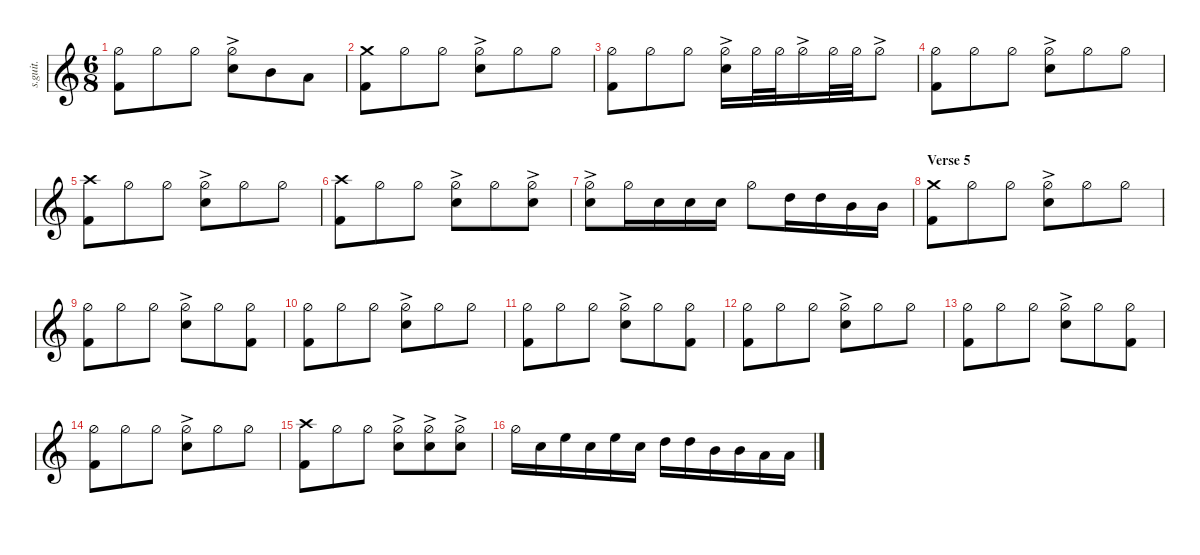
\defaultSystemsLayout 4
\hideDynamics
\bracketExtendMode nobrackets
\track ("Lars Ulrich - Drums" "s.guit.") {instrument percussion}
\staff {score}
\articulation defaults
\ts (6 8)
\tempo (71 hide)
\clef g2
\ks c
("Hi-Hat (half)" "Kick (hit) 2").8{lyrics (0 "") lyrics (1 "") lyrics (2 "") lyrics (3 "") lyrics (4 "") dy ff} "Hi-Hat (half)".8{lyrics (0 "") lyrics (1 "") lyrics (2 "") lyrics (3 "") lyrics (4 "")} "Hi-Hat (half)".8{lyrics (0 "") lyrics (1 "") lyrics (2 "") lyrics (3 "") lyrics (4 "")} ("Hi-Hat (half)"{ac} "Snare (hit) 2"{ac}).8{lyrics (0 "") lyrics (1 "") lyrics (2 "") lyrics (3 "") lyrics (4 "")} "Mid Tom (hit)".8{lyrics (0 "") lyrics (1 "") lyrics (2 "") lyrics (3 "") lyrics (4 "")} "Low Floor Tom (hit)".8{lyrics (0 "") lyrics (1 "") lyrics (2 "") lyrics (3 "") lyrics (4 "")} |
("Crash medium (hit)" "Kick (hit) 2").8{lyrics (0 "") lyrics (1 "") lyrics (2 "") lyrics (3 "") lyrics (4 "")} "Hi-Hat (half)".8{lyrics (0 "") lyrics (1 "") lyrics (2 "") lyrics (3 "") lyrics (4 "")} "Hi-Hat (half)".8{lyrics (0 "") lyrics (1 "") lyrics (2 "") lyrics (3 "") lyrics (4 "")} ("Hi-Hat (half)"{ac} "Snare (hit) 2"{ac}).8{lyrics (0 "") lyrics (1 "") lyrics (2 "") lyrics (3 "") lyrics (4 "")} "Hi-Hat (half)".8{lyrics (0 "") lyrics (1 "") lyrics (2 "") lyrics (3 "") lyrics (4 "")} "Hi-Hat (half)".8{lyrics (0 "") lyrics (1 "") lyrics (2 "") lyrics (3 "") lyrics (4 "")} |
("Hi-Hat (half)" "Kick (hit) 2").8{lyrics (0 "") lyrics (1 "") lyrics (2 "") lyrics (3 "") lyrics (4 "")} "Hi-Hat (half)".8{lyrics (0 "") lyrics (1 "") lyrics (2 "") lyrics (3 "") lyrics (4 "")} "Hi-Hat (half)".8{lyrics (0 "") lyrics (1 "") lyrics (2 "") lyrics (3 "") lyrics (4 "")} ("Hi-Hat (half)"{ac} "Snare (hit) 2"{ac}).16{lyrics (0 "") lyrics (1 "") lyrics (2 "") lyrics (3 "") lyrics (4 "")} "Hi-Hat (half)".32{lyrics (0 "") lyrics (1 "") lyrics (2 "") lyrics (3 "") lyrics (4 "")} "Hi-Hat (half)".32{lyrics (0 "") lyrics (1 "") lyrics (2 "") lyrics (3 "") lyrics (4 "")} "Hi-Hat (half)"{ac}.16{lyrics (0 "") lyrics (1 "") lyrics (2 "") lyrics (3 "") lyrics (4 "")} "Hi-Hat (half)".32{lyrics (0 "") lyrics (1 "") lyrics (2 "") lyrics (3 "") lyrics (4 "")} "Hi-Hat (half)".32{lyrics (0 "") lyrics (1 "") lyrics (2 "") lyrics (3 "") lyrics (4 "")} "Hi-Hat (half)"{ac}.8{lyrics (0 "") lyrics (1 "") lyrics (2 "") lyrics (3 "") lyrics (4 "")} |
("Kick (hit) 2" "Hi-Hat (half)").8{lyrics (0 "") lyrics (1 "") lyrics (2 "") lyrics (3 "") lyrics (4 "")} "Hi-Hat (half)".8{lyrics (0 "") lyrics (1 "") lyrics (2 "") lyrics (3 "") lyrics (4 "")} "Hi-Hat (half)".8{lyrics (0 "") lyrics (1 "") lyrics (2 "") lyrics (3 "") lyrics (4 "")} ("Hi-Hat (half)"{ac} "Snare (hit) 2"{ac}).8{lyrics (0 "") lyrics (1 "") lyrics (2 "") lyrics (3 "") lyrics (4 "")} "Hi-Hat (half)".8{lyrics (0 "") lyrics (1 "") lyrics (2 "") lyrics (3 "") lyrics (4 "")} "Hi-Hat (half)".8{lyrics (0 "") lyrics (1 "") lyrics (2 "") lyrics (3 "") lyrics (4 "")} |
("Kick (hit) 2" "Crash high (hit)").8{lyrics (0 "") lyrics (1 "") lyrics (2 "") lyrics (3 "") lyrics (4 "")} "Hi-Hat (half)".8{lyrics (0 "") lyrics (1 "") lyrics (2 "") lyrics (3 "") lyrics (4 "")} "Hi-Hat (half)".8{lyrics (0 "") lyrics (1 "") lyrics (2 "") lyrics (3 "") lyrics (4 "")} ("Hi-Hat (half)"{ac} "Snare (hit) 2"{ac}).8{lyrics (0 "") lyrics (1 "") lyrics (2 "") lyrics (3 "") lyrics (4 "")} "Hi-Hat (half)".8{lyrics (0 "") lyrics (1 "") lyrics (2 "") lyrics (3 "") lyrics (4 "")} "Hi-Hat (half)".8{lyrics (0 "") lyrics (1 "") lyrics (2 "") lyrics (3 "") lyrics (4 "")} |
("Crash high (hit)" "Kick (hit) 2").8{lyrics (0 "") lyrics (1 "") lyrics (2 "") lyrics (3 "") lyrics (4 "")} "Hi-Hat (half)".8{lyrics (0 "") lyrics (1 "") lyrics (2 "") lyrics (3 "") lyrics (4 "")} "Hi-Hat (half)".8{lyrics (0 "") lyrics (1 "") lyrics (2 "") lyrics (3 "") lyrics (4 "")} ("Hi-Hat (half)"{ac} "Snare (hit) 2"{ac}).8{lyrics (0 "") lyrics (1 "") lyrics (2 "") lyrics (3 "") lyrics (4 "")} "Hi-Hat (half)".8{lyrics (0 "") lyrics (1 "") lyrics (2 "") lyrics (3 "") lyrics (4 "")} ("Snare (hit) 2"{ac} "Hi-Hat (half)"{ac}).8{lyrics (0 "") lyrics (1 "") lyrics (2 "") lyrics (3 "") lyrics (4 "")} |
("Hi-Hat (half)"{ac} "Snare (hit) 2"{ac}).8{lyrics (0 "") lyrics (1 "") lyrics (2 "") lyrics (3 "") lyrics (4 "")} "Hi-Hat (half)".16{lyrics (0 "") lyrics (1 "") lyrics (2 "") lyrics (3 "") lyrics (4 "")} "Snare (hit) 2".16{lyrics (0 "") lyrics (1 "") lyrics (2 "") lyrics (3 "") lyrics (4 "")} "Snare (hit) 2".16{lyrics (0 "") lyrics (1 "") lyrics (2 "") lyrics (3 "") lyrics (4 "")} "Snare (hit) 2".16{lyrics (0 "") lyrics (1 "") lyrics (2 "") lyrics (3 "") lyrics (4 "")} "Hi-Hat (half)".8{lyrics (0 "") lyrics (1 "") lyrics (2 "") lyrics (3 "") lyrics (4 "")} "High Tom (hit)".16{lyrics (0 "") lyrics (1 "") lyrics (2 "") lyrics (3 "") lyrics (4 "")} "High Tom (hit)".16{lyrics (0 "") lyrics (1 "") lyrics (2 "") lyrics (3 "") lyrics (4 "")} "Mid Tom (hit)".16{lyrics (0 "") lyrics (1 "") lyrics (2 "") lyrics (3 "") lyrics (4 "")} "Mid Tom (hit)".16{lyrics (0 "") lyrics (1 "") lyrics (2 "") lyrics (3 "") lyrics (4 "")} |
\section ("" "Verse 5")
("Crash medium (hit)" "Kick (hit) 2").8{lyrics (0 "") lyrics (1 "") lyrics (2 "") lyrics (3 "") lyrics (4 "")} "Hi-Hat (half)".8{lyrics (0 "") lyrics (1 "") lyrics (2 "") lyrics (3 "") lyrics (4 "")} "Hi-Hat (half)".8{lyrics (0 "") lyrics (1 "") lyrics (2 "") lyrics (3 "") lyrics (4 "")} ("Hi-Hat (half)"{ac} "Snare (hit) 2"{ac}).8{lyrics (0 "") lyrics (1 "") lyrics (2 "") lyrics (3 "") lyrics (4 "")} "Hi-Hat (half)".8{lyrics (0 "") lyrics (1 "") lyrics (2 "") lyrics (3 "") lyrics (4 "")} "Hi-Hat (half)".8{lyrics (0 "") lyrics (1 "") lyrics (2 "") lyrics (3 "") lyrics (4 "")} |
("Hi-Hat (half)" "Kick (hit) 2").8{lyrics (0 "") lyrics (1 "") lyrics (2 "") lyrics (3 "") lyrics (4 "")} "Hi-Hat (half)".8{lyrics (0 "") lyrics (1 "") lyrics (2 "") lyrics (3 "") lyrics (4 "")} "Hi-Hat (half)".8{lyrics (0 "") lyrics (1 "") lyrics (2 "") lyrics (3 "") lyrics (4 "")} ("Hi-Hat (half)"{ac} "Snare (hit) 2"{ac}).8{lyrics (0 "") lyrics (1 "") lyrics (2 "") lyrics (3 "") lyrics (4 "")} "Hi-Hat (half)".8{lyrics (0 "") lyrics (1 "") lyrics (2 "") lyrics (3 "") lyrics (4 "")} ("Hi-Hat (half)" "Kick (hit) 2").8{lyrics (0 "") lyrics (1 "") lyrics (2 "") lyrics (3 "") lyrics (4 "")} |
("Hi-Hat (half)" "Kick (hit) 2").8{lyrics (0 "") lyrics (1 "") lyrics (2 "") lyrics (3 "") lyrics (4 "")} "Hi-Hat (half)".8{lyrics (0 "") lyrics (1 "") lyrics (2 "") lyrics (3 "") lyrics (4 "")} "Hi-Hat (half)".8{lyrics (0 "") lyrics (1 "") lyrics (2 "") lyrics (3 "") lyrics (4 "")} ("Hi-Hat (half)"{ac} "Snare (hit) 2"{ac}).8{lyrics (0 "") lyrics (1 "") lyrics (2 "") lyrics (3 "") lyrics (4 "")} "Hi-Hat (half)".8{lyrics (0 "") lyrics (1 "") lyrics (2 "") lyrics (3 "") lyrics (4 "")} "Hi-Hat (half)".8{lyrics (0 "") lyrics (1 "") lyrics (2 "") lyrics (3 "") lyrics (4 "")} |
("Hi-Hat (half)" "Kick (hit) 2").8{lyrics (0 "") lyrics (1 "") lyrics (2 "") lyrics (3 "") lyrics (4 "")} "Hi-Hat (half)".8{lyrics (0 "") lyrics (1 "") lyrics (2 "") lyrics (3 "") lyrics (4 "")} "Hi-Hat (half)".8{lyrics (0 "") lyrics (1 "") lyrics (2 "") lyrics (3 "") lyrics (4 "")} ("Hi-Hat (half)"{ac} "Snare (hit) 2"{ac}).8{lyrics (0 "") lyrics (1 "") lyrics (2 "") lyrics (3 "") lyrics (4 "")} "Hi-Hat (half)".8{lyrics (0 "") lyrics (1 "") lyrics (2 "") lyrics (3 "") lyrics (4 "")} ("Hi-Hat (half)" "Kick (hit) 2").8{lyrics (0 "") lyrics (1 "") lyrics (2 "") lyrics (3 "") lyrics (4 "")} |
("Hi-Hat (half)" "Kick (hit) 2").8{lyrics (0 "") lyrics (1 "") lyrics (2 "") lyrics (3 "") lyrics (4 "")} "Hi-Hat (half)".8{lyrics (0 "") lyrics (1 "") lyrics (2 "") lyrics (3 "") lyrics (4 "")} "Hi-Hat (half)".8{lyrics (0 "") lyrics (1 "") lyrics (2 "") lyrics (3 "") lyrics (4 "")} ("Hi-Hat (half)"{ac} "Snare (hit) 2"{ac}).8{lyrics (0 "") lyrics (1 "") lyrics (2 "") lyrics (3 "") lyrics (4 "")} "Hi-Hat (half)".8{lyrics (0 "") lyrics (1 "") lyrics (2 "") lyrics (3 "") lyrics (4 "")} "Hi-Hat (half)".8{lyrics (0 "") lyrics (1 "") lyrics (2 "") lyrics (3 "") lyrics (4 "")} |
("Hi-Hat (half)" "Kick (hit) 2").8{lyrics (0 "") lyrics (1 "") lyrics (2 "") lyrics (3 "") lyrics (4 "")} "Hi-Hat (half)".8{lyrics (0 "") lyrics (1 "") lyrics (2 "") lyrics (3 "") lyrics (4 "")} "Hi-Hat (half)".8{lyrics (0 "") lyrics (1 "") lyrics (2 "") lyrics (3 "") lyrics (4 "")} ("Hi-Hat (half)"{ac} "Snare (hit) 2"{ac}).8{lyrics (0 "") lyrics (1 "") lyrics (2 "") lyrics (3 "") lyrics (4 "")} "Hi-Hat (half)".8{lyrics (0 "") lyrics (1 "") lyrics (2 "") lyrics (3 "") lyrics (4 "")} ("Hi-Hat (half)" "Kick (hit) 2").8{lyrics (0 "") lyrics (1 "") lyrics (2 "") lyrics (3 "") lyrics (4 "")} |
("Hi-Hat (half)" "Kick (hit) 2").8{lyrics (0 "") lyrics (1 "") lyrics (2 "") lyrics (3 "") lyrics (4 "")} "Hi-Hat (half)".8{lyrics (0 "") lyrics (1 "") lyrics (2 "") lyrics (3 "") lyrics (4 "")} "Hi-Hat (half)".8{lyrics (0 "") lyrics (1 "") lyrics (2 "") lyrics (3 "") lyrics (4 "")} ("Hi-Hat (half)"{ac} "Snare (hit) 2"{ac}).8{lyrics (0 "") lyrics (1 "") lyrics (2 "") lyrics (3 "") lyrics (4 "")} "Hi-Hat (half)".8{lyrics (0 "") lyrics (1 "") lyrics (2 "") lyrics (3 "") lyrics (4 "")} "Hi-Hat (half)".8{lyrics (0 "") lyrics (1 "") lyrics (2 "") lyrics (3 "") lyrics (4 "")} |
("Crash high (hit)" "Kick (hit) 2").8{lyrics (0 "") lyrics (1 "") lyrics (2 "") lyrics (3 "") lyrics (4 "")} "Hi-Hat (half)".8{lyrics (0 "") lyrics (1 "") lyrics (2 "") lyrics (3 "") lyrics (4 "")} "Hi-Hat (half)".8{lyrics (0 "") lyrics (1 "") lyrics (2 "") lyrics (3 "") lyrics (4 "")} ("Hi-Hat (half)"{ac} "Snare (hit) 2"{ac}).8{lyrics (0 "") lyrics (1 "") lyrics (2 "") lyrics (3 "") lyrics (4 "")} ("Hi-Hat (half)"{ac} "Snare (hit) 2"{ac}).8{lyrics (0 "") lyrics (1 "") lyrics (2 "") lyrics (3 "") lyrics (4 "")} ("Hi-Hat (half)"{ac} "Snare (hit) 2"{ac}).8{lyrics (0 "") lyrics (1 "") lyrics (2 "") lyrics (3 "") lyrics (4 "")} |
"Hi-Hat (half)".16{lyrics (0 "") lyrics (1 "") lyrics (2 "") lyrics (3 "") lyrics (4 "")} "Snare (hit) 2".16{lyrics (0 "") lyrics (1 "") lyrics (2 "") lyrics (3 "") lyrics (4 "")} "High Floor Tom (hit)".16{lyrics (0 "") lyrics (1 "") lyrics (2 "") lyrics (3 "") lyrics (4 "")} "Snare (hit) 2".16{lyrics (0 "") lyrics (1 "") lyrics (2 "") lyrics (3 "") lyrics (4 "")} "High Floor Tom (hit)".16{lyrics (0 "") lyrics (1 "") lyrics (2 "") lyrics (3 "") lyrics (4 "")} "Snare (hit) 2".16{lyrics (0 "") lyrics (1 "") lyrics (2 "") lyrics (3 "") lyrics (4 "")} "High Tom (hit)".16{lyrics (0 "") lyrics (1 "") lyrics (2 "") lyrics (3 "") lyrics (4 "")} "High Tom (hit)".16{lyrics (0 "") lyrics (1 "") lyrics (2 "") lyrics (3 "") lyrics (4 "")} "Mid Tom (hit)".16{lyrics (0 "") lyrics (1 "") lyrics (2 "") lyrics (3 "") lyrics (4 "")} "Mid Tom (hit)".16{lyrics (0 "") lyrics (1 "") lyrics (2 "") lyrics (3 "") lyrics (4 "")} "Low Floor Tom (hit)".16{lyrics (0 "") lyrics (1 "") lyrics (2 "") lyrics (3 "") lyrics (4 "")} "Low Floor Tom (hit)".16{lyrics (0 "") lyrics (1 "") lyrics (2 "") lyrics (3 "") lyrics (4 "")}
